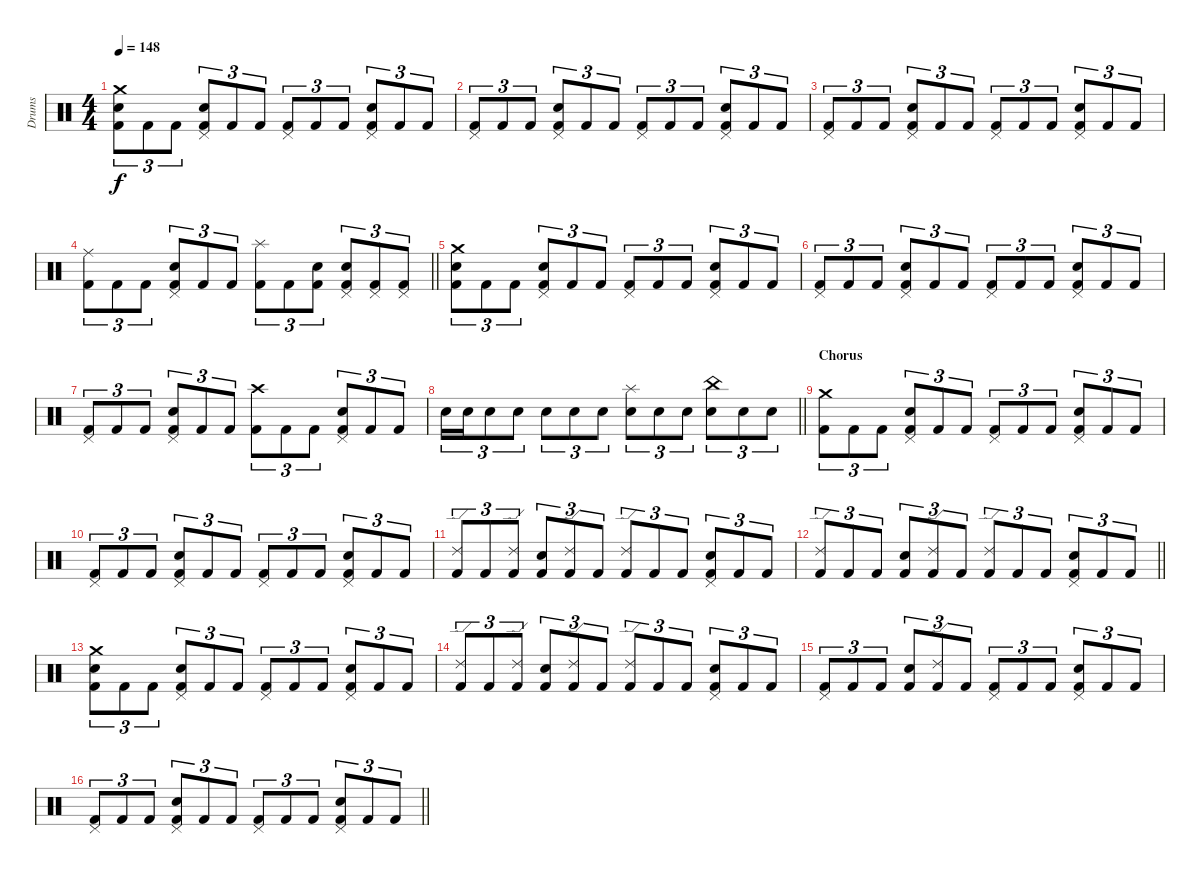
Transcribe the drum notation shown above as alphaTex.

\track ("Drums" "Drums") {instrument percussion}
\staff {score}
\articulation defaults
\ts (4 4)
\section ("" "")
\tempo 148
\clef neutral
\ks c
("Kick (hit) 2" "Snare (hit) 2" "Crash medium (hit)").8{tu (3 2) dy f} "Kick (hit) 2".8{tu (3 2)} "Kick (hit) 2".8{tu (3 2)} ("Kick (hit) 2" "Snare (hit) 2" "Pedal Hi-Hat (hit)").8{tu (3 2)} "Kick (hit) 2".8{tu (3 2)} "Kick (hit) 2".8{tu (3 2)} ("Kick (hit) 2" "Pedal Hi-Hat (hit)").8{tu (3 2)} "Kick (hit) 2".8{tu (3 2)} "Kick (hit) 2".8{tu (3 2)} ("Kick (hit) 2" "Snare (hit) 2" "Pedal Hi-Hat (hit)").8{tu (3 2)} "Kick (hit) 2".8{tu (3 2)} "Kick (hit) 2".8{tu (3 2)} |
("Kick (hit) 2" "Pedal Hi-Hat (hit)").8{tu (3 2)} "Kick (hit) 2".8{tu (3 2)} "Kick (hit) 2".8{tu (3 2)} ("Kick (hit) 2" "Snare (hit) 2" "Pedal Hi-Hat (hit)").8{tu (3 2)} "Kick (hit) 2".8{tu (3 2)} "Kick (hit) 2".8{tu (3 2)} ("Kick (hit) 2" "Pedal Hi-Hat (hit)").8{tu (3 2)} "Kick (hit) 2".8{tu (3 2)} "Kick (hit) 2".8{tu (3 2)} ("Kick (hit) 2" "Snare (hit) 2" "Pedal Hi-Hat (hit)").8{tu (3 2)} "Kick (hit) 2".8{tu (3 2)} "Kick (hit) 2".8{tu (3 2)} |
("Kick (hit) 2" "Pedal Hi-Hat (hit)").8{tu (3 2)} "Kick (hit) 2".8{tu (3 2)} "Kick (hit) 2".8{tu (3 2)} ("Kick (hit) 2" "Snare (hit) 2" "Pedal Hi-Hat (hit)").8{tu (3 2)} "Kick (hit) 2".8{tu (3 2)} "Kick (hit) 2".8{tu (3 2)} ("Kick (hit) 2" "Pedal Hi-Hat (hit)").8{tu (3 2)} "Kick (hit) 2".8{tu (3 2)} "Kick (hit) 2".8{tu (3 2)} ("Kick (hit) 2" "Snare (hit) 2" "Pedal Hi-Hat (hit)").8{tu (3 2)} "Kick (hit) 2".8{tu (3 2)} "Kick (hit) 2".8{tu (3 2)} |
\barLineRight lightlight
("Kick (hit) 2" "Ride (middle)").8{tu (3 2)} "Kick (hit) 2".8{tu (3 2)} "Kick (hit) 2".8{tu (3 2)} ("Kick (hit) 2" "Snare (hit) 2" "Pedal Hi-Hat (hit)").8{tu (3 2)} "Kick (hit) 2".8{tu (3 2)} "Kick (hit) 2".8{tu (3 2)} ("Kick (hit) 2" "Splash (hit)").8{tu (3 2)} "Kick (hit) 2".8{tu (3 2)} ("Kick (hit) 2" "Snare (hit) 2").8{tu (3 2)} ("Kick (hit) 2" "Snare (hit) 2" "Pedal Hi-Hat (hit)").8{tu (3 2)} ("Kick (hit) 2" "Pedal Hi-Hat (hit)").8{tu (3 2)} ("Kick (hit) 2" "Pedal Hi-Hat (hit)").8{tu (3 2)} |
\section ("" "")
("Kick (hit) 2" "Snare (hit) 2" "Crash medium (hit)").8{tu (3 2)} "Kick (hit) 2".8{tu (3 2)} "Kick (hit) 2".8{tu (3 2)} ("Kick (hit) 2" "Snare (hit) 2" "Pedal Hi-Hat (hit)").8{tu (3 2)} "Kick (hit) 2".8{tu (3 2)} "Kick (hit) 2".8{tu (3 2)} ("Kick (hit) 2" "Pedal Hi-Hat (hit)").8{tu (3 2)} "Kick (hit) 2".8{tu (3 2)} "Kick (hit) 2".8{tu (3 2)} ("Kick (hit) 2" "Snare (hit) 2" "Pedal Hi-Hat (hit)").8{tu (3 2)} "Kick (hit) 2".8{tu (3 2)} "Kick (hit) 2".8{tu (3 2)} |
("Kick (hit) 2" "Pedal Hi-Hat (hit)").8{tu (3 2)} "Kick (hit) 2".8{tu (3 2)} "Kick (hit) 2".8{tu (3 2)} ("Kick (hit) 2" "Snare (hit) 2" "Pedal Hi-Hat (hit)").8{tu (3 2)} "Kick (hit) 2".8{tu (3 2)} "Kick (hit) 2".8{tu (3 2)} ("Kick (hit) 2" "Pedal Hi-Hat (hit)").8{tu (3 2)} "Kick (hit) 2".8{tu (3 2)} "Kick (hit) 2".8{tu (3 2)} ("Kick (hit) 2" "Snare (hit) 2" "Pedal Hi-Hat (hit)").8{tu (3 2)} "Kick (hit) 2".8{tu (3 2)} "Kick (hit) 2".8{tu (3 2)} |
("Kick (hit) 2" "Pedal Hi-Hat (hit)").8{tu (3 2)} "Kick (hit) 2".8{tu (3 2)} "Kick (hit) 2".8{tu (3 2)} ("Kick (hit) 2" "Snare (hit) 2" "Pedal Hi-Hat (hit)").8{tu (3 2)} "Kick (hit) 2".8{tu (3 2)} "Kick (hit) 2".8{tu (3 2)} ("Kick (hit) 2" "Crash high (hit)").8{tu (3 2)} "Kick (hit) 2".8{tu (3 2)} "Kick (hit) 2".8{tu (3 2)} ("Kick (hit) 2" "Snare (hit) 2" "Pedal Hi-Hat (hit)").8{tu (3 2)} "Kick (hit) 2".8{tu (3 2)} "Kick (hit) 2".8{tu (3 2)} |
\barLineRight lightlight "Snare (hit) 2".16{tu (3 2)} "Snare (hit) 2".16{tu (3 2)} "Snare (hit) 2".8{tu (3 2)} "Snare (hit) 2".8{tu (3 2)} "Snare (hit) 2".8{tu (3 2)} "Snare (hit) 2".8{tu (3 2)} "Snare (hit) 2".8{tu (3 2)}
("Snare (hit) 2" "Splash (hit)").8{tu (3 2)} "Snare (hit) 2".8{tu (3 2)} "Snare (hit) 2".8{tu (3 2)} ("Snare (hit) 2" "China (hit)").8{tu (3 2)} "Snare (hit) 2".8{tu (3 2)} "Snare (hit) 2".8{tu (3 2)} |
\section ("" "Chorus")
("Kick (hit) 2" "Crash medium (hit)").8{tu (3 2)} "Kick (hit) 2".8{tu (3 2)} "Kick (hit) 2".8{tu (3 2)} ("Kick (hit) 2" "Snare (hit) 2" "Pedal Hi-Hat (hit)").8{tu (3 2)} "Kick (hit) 2".8{tu (3 2)} "Kick (hit) 2".8{tu (3 2)} ("Kick (hit) 2" "Pedal Hi-Hat (hit)").8{tu (3 2)} "Kick (hit) 2".8{tu (3 2)} "Kick (hit) 2".8{tu (3 2)} ("Kick (hit) 2" "Snare (hit) 2" "Pedal Hi-Hat (hit)").8{tu (3 2)} "Kick (hit) 2".8{tu (3 2)} "Kick (hit) 2".8{tu (3 2)} |
("Kick (hit) 2" "Pedal Hi-Hat (hit)").8{tu (3 2)} "Kick (hit) 2".8{tu (3 2)} "Kick (hit) 2".8{tu (3 2)} ("Kick (hit) 2" "Snare (hit) 2" "Pedal Hi-Hat (hit)").8{tu (3 2)} "Kick (hit) 2".8{tu (3 2)} "Kick (hit) 2".8{tu (3 2)} ("Kick (hit) 2" "Pedal Hi-Hat (hit)").8{tu (3 2)} "Kick (hit) 2".8{tu (3 2)} "Kick (hit) 2".8{tu (3 2)} ("Kick (hit) 2" "Snare (hit) 2" "Pedal Hi-Hat (hit)").8{tu (3 2)} "Kick (hit) 2".8{tu (3 2)} "Kick (hit) 2".8{tu (3 2)} |
("Kick (hit) 2" "Ride (edge) 2").8{tu (3 2)} "Kick (hit) 2".8{tu (3 2)} ("Kick (hit) 2" "Ride (edge) 2").8{tu (3 2)} ("Kick (hit) 2" "Snare (hit) 2").8{tu (3 2)} ("Kick (hit) 2" "Ride (edge) 2").8{tu (3 2)} "Kick (hit) 2".8{tu (3 2)} ("Kick (hit) 2" "Ride (edge) 2").8{tu (3 2)} "Kick (hit) 2".8{tu (3 2)} "Kick (hit) 2".8{tu (3 2)} ("Kick (hit) 2" "Snare (hit) 2" "Pedal Hi-Hat (hit)").8{tu (3 2)} "Kick (hit) 2".8{tu (3 2)} "Kick (hit) 2".8{tu (3 2)} |
\barLineRight lightlight
("Kick (hit) 2" "Ride (edge) 2").8{tu (3 2)} "Kick (hit) 2".8{tu (3 2)} "Kick (hit) 2".8{tu (3 2)} ("Kick (hit) 2" "Snare (hit) 2").8{tu (3 2)} ("Kick (hit) 2" "Ride (edge) 2").8{tu (3 2)} "Kick (hit) 2".8{tu (3 2)} ("Kick (hit) 2" "Ride (edge) 2").8{tu (3 2)} "Kick (hit) 2".8{tu (3 2)} "Kick (hit) 2".8{tu (3 2)} ("Kick (hit) 2" "Snare (hit) 2" "Pedal Hi-Hat (hit)").8{tu (3 2)} "Kick (hit) 2".8{tu (3 2)} "Kick (hit) 2".8{tu (3 2)} |
\section ("" "")
("Kick (hit) 2" "Snare (hit) 2" "Crash medium (hit)").8{tu (3 2)} "Kick (hit) 2".8{tu (3 2)} "Kick (hit) 2".8{tu (3 2)} ("Kick (hit) 2" "Snare (hit) 2" "Pedal Hi-Hat (hit)").8{tu (3 2)} "Kick (hit) 2".8{tu (3 2)} "Kick (hit) 2".8{tu (3 2)} ("Kick (hit) 2" "Pedal Hi-Hat (hit)").8{tu (3 2)} "Kick (hit) 2".8{tu (3 2)} "Kick (hit) 2".8{tu (3 2)} ("Kick (hit) 2" "Snare (hit) 2" "Pedal Hi-Hat (hit)").8{tu (3 2)} "Kick (hit) 2".8{tu (3 2)} "Kick (hit) 2".8{tu (3 2)} |
("Kick (hit) 2" "Ride (edge) 2").8{tu (3 2)} "Kick (hit) 2".8{tu (3 2)} ("Kick (hit) 2" "Ride (edge) 2").8{tu (3 2)} ("Kick (hit) 2" "Snare (hit) 2").8{tu (3 2)} ("Kick (hit) 2" "Ride (edge) 2").8{tu (3 2)} "Kick (hit) 2".8{tu (3 2)} ("Kick (hit) 2" "Ride (edge) 2").8{tu (3 2)} "Kick (hit) 2".8{tu (3 2)} "Kick (hit) 2".8{tu (3 2)} ("Kick (hit) 2" "Snare (hit) 2" "Pedal Hi-Hat (hit)").8{tu (3 2)} "Kick (hit) 2".8{tu (3 2)} "Kick (hit) 2".8{tu (3 2)} |
("Kick (hit) 2" "Pedal Hi-Hat (hit)").8{tu (3 2)} "Kick (hit) 2".8{tu (3 2)} "Kick (hit) 2".8{tu (3 2)} ("Kick (hit) 2" "Snare (hit) 2").8{tu (3 2)} ("Kick (hit) 2" "Ride (edge) 2").8{tu (3 2)} "Kick (hit) 2".8{tu (3 2)} ("Kick (hit) 2" "Pedal Hi-Hat (hit)").8{tu (3 2)} "Kick (hit) 2".8{tu (3 2)} "Kick (hit) 2".8{tu (3 2)} ("Kick (hit) 2" "Snare (hit) 2" "Pedal Hi-Hat (hit)").8{tu (3 2)} "Kick (hit) 2".8{tu (3 2)} "Kick (hit) 2".8{tu (3 2)} |
\barLineRight lightlight
("Kick (hit) 2" "Pedal Hi-Hat (hit)").8{tu (3 2)} "Kick (hit) 2".8{tu (3 2)} "Kick (hit) 2".8{tu (3 2)} ("Kick (hit) 2" "Snare (hit) 2" "Pedal Hi-Hat (hit)").8{tu (3 2)} "Kick (hit) 2".8{tu (3 2)} "Kick (hit) 2".8{tu (3 2)} ("Kick (hit) 2" "Pedal Hi-Hat (hit)").8{tu (3 2)} "Kick (hit) 2".8{tu (3 2)} "Kick (hit) 2".8{tu (3 2)} ("Kick (hit) 2" "Snare (hit) 2" "Pedal Hi-Hat (hit)").8{tu (3 2)} "Kick (hit) 2".8{tu (3 2)} "Kick (hit) 2".8{tu (3 2)}
